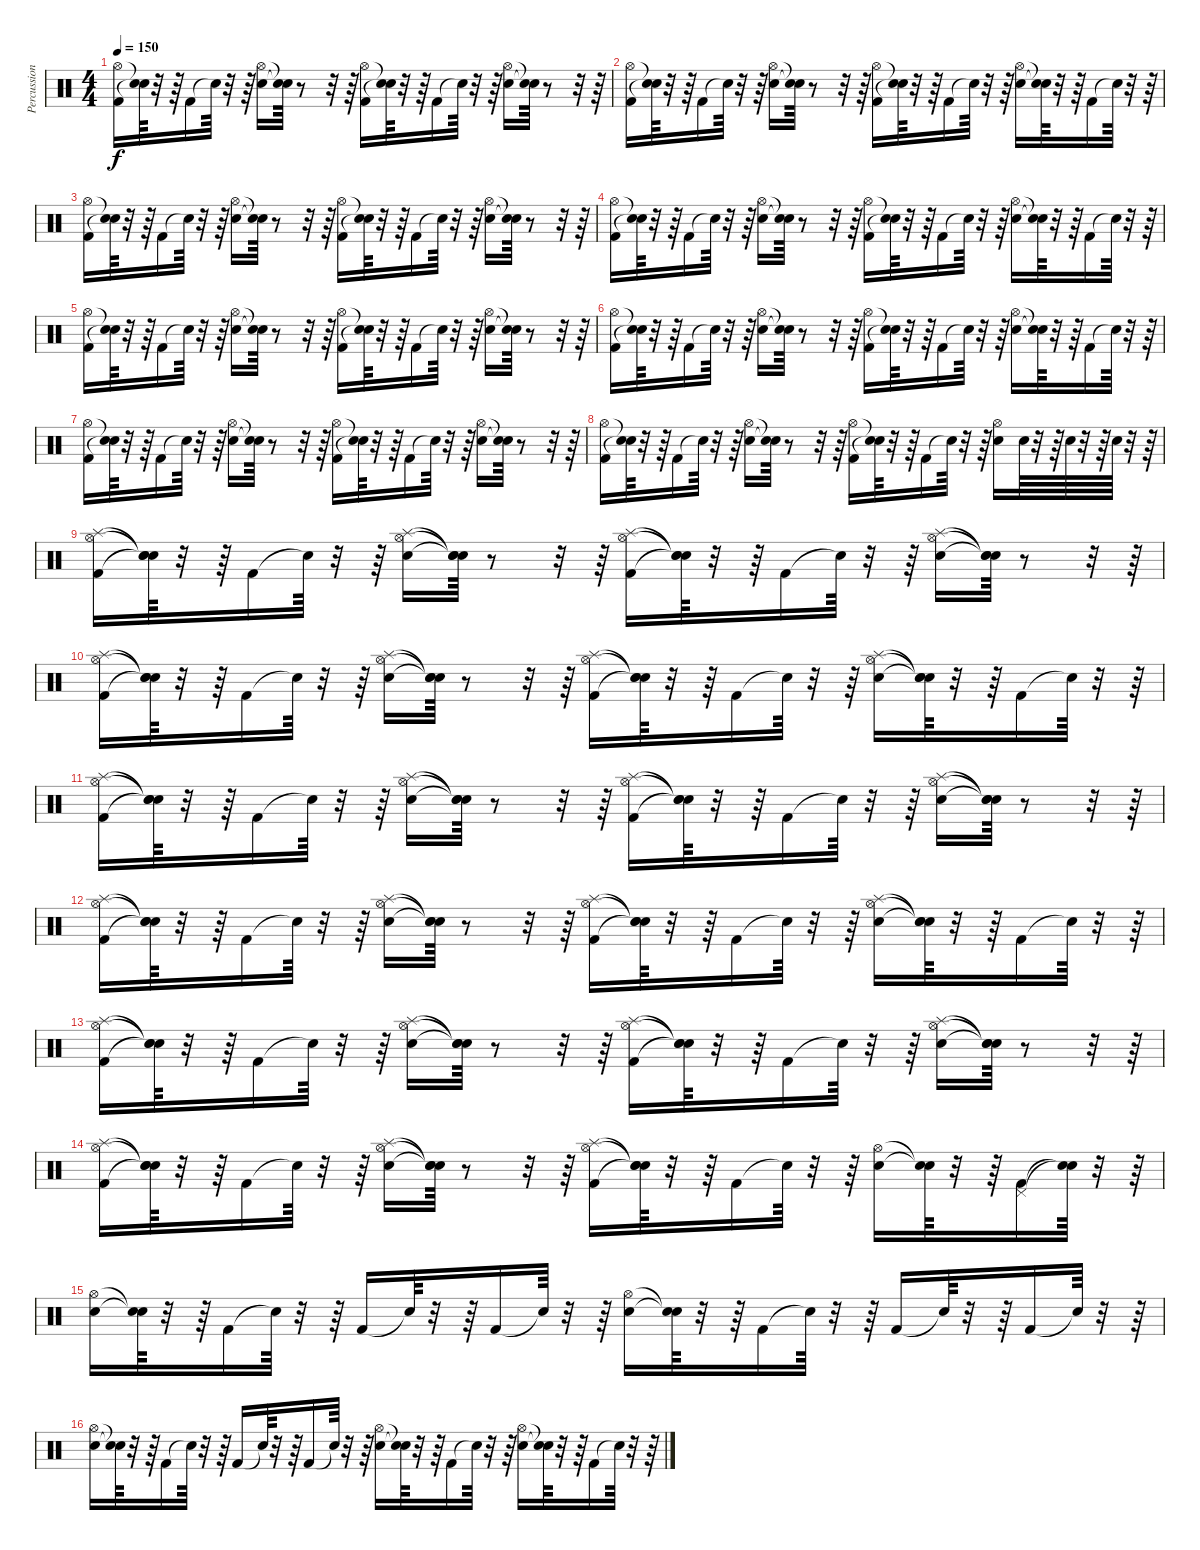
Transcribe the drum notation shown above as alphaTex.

\track ("Percussions" "Percussion") {instrument percussion}
\staff {score}
\articulation defaults
\ts (4 4)
\tempo 150
\clef neutral
\ks c
("Hi-Hat (open)" "Kick (hit) 2").16{dy f} ("Snare (hit)"{t} "Snare (hit)"{t}).64 r.32 r.64 "Kick (hit) 2".16 "Snare (hit)"{t}.64 r.32 r.64 ("Hi-Hat (open)" "Electric Snare (hit)").16 ("Snare (hit)"{t} "Snare (hit)"{t}).64 r.8 r.32 r.64 ("Hi-Hat (open)" "Kick (hit) 2").16 ("Snare (hit)"{t} "Snare (hit)"{t}).64 r.32 r.64 "Kick (hit) 2".16 "Snare (hit)"{t}.64 r.32 r.64 ("Hi-Hat (open)" "Electric Snare (hit)").16 ("Snare (hit)"{t} "Snare (hit)"{t}).64 r.8 r.32 r.64 |
("Hi-Hat (open)" "Kick (hit) 2").16 ("Snare (hit)"{t} "Snare (hit)"{t}).64 r.32 r.64 "Kick (hit) 2".16 "Snare (hit)"{t}.64 r.32 r.64 ("Hi-Hat (open)" "Electric Snare (hit)").16 ("Snare (hit)"{t} "Snare (hit)"{t}).64 r.8 r.32 r.64 ("Hi-Hat (open)" "Kick (hit) 2").16 ("Snare (hit)"{t} "Snare (hit)"{t}).64 r.32 r.64 "Kick (hit) 2".16 "Snare (hit)"{t}.64 r.32 r.64 ("Hi-Hat (open)" "Electric Snare (hit)").16 ("Snare (hit)"{t} "Snare (hit)"{t}).64 r.32 r.64 "Kick (hit) 2".16 "Snare (hit)"{t}.64 r.32 r.64 |
("Hi-Hat (open)" "Kick (hit) 2").16 ("Snare (hit)"{t} "Snare (hit)"{t}).64 r.32 r.64 "Kick (hit) 2".16 "Snare (hit)"{t}.64 r.32 r.64 ("Hi-Hat (open)" "Electric Snare (hit)").16 ("Snare (hit)"{t} "Snare (hit)"{t}).64 r.8 r.32 r.64 ("Hi-Hat (open)" "Kick (hit) 2").16 ("Snare (hit)"{t} "Snare (hit)"{t}).64 r.32 r.64 "Kick (hit) 2".16 "Snare (hit)"{t}.64 r.32 r.64 ("Hi-Hat (open)" "Electric Snare (hit)").16 ("Snare (hit)"{t} "Snare (hit)"{t}).64 r.8 r.32 r.64 |
("Hi-Hat (open)" "Kick (hit) 2").16 ("Snare (hit)"{t} "Snare (hit)"{t}).64 r.32 r.64 "Kick (hit) 2".16 "Snare (hit)"{t}.64 r.32 r.64 ("Hi-Hat (open)" "Electric Snare (hit)").16 ("Snare (hit)"{t} "Snare (hit)"{t}).64 r.8 r.32 r.64 ("Hi-Hat (open)" "Kick (hit) 2").16 ("Snare (hit)"{t} "Snare (hit)"{t}).64 r.32 r.64 "Kick (hit) 2".16 "Snare (hit)"{t}.64 r.32 r.64 ("Hi-Hat (open)" "Electric Snare (hit)").16 ("Snare (hit)"{t} "Snare (hit)"{t}).64 r.32 r.64 "Kick (hit) 2".16 "Snare (hit)"{t}.64 r.32 r.64 |
("Hi-Hat (open)" "Kick (hit) 2").16 ("Snare (hit)"{t} "Snare (hit)"{t}).64 r.32 r.64 "Kick (hit) 2".16 "Snare (hit)"{t}.64 r.32 r.64 ("Hi-Hat (open)" "Electric Snare (hit)").16 ("Snare (hit)"{t} "Snare (hit)"{t}).64 r.8 r.32 r.64 ("Hi-Hat (open)" "Kick (hit) 2").16 ("Snare (hit)"{t} "Snare (hit)"{t}).64 r.32 r.64 "Kick (hit) 2".16 "Snare (hit)"{t}.64 r.32 r.64 ("Hi-Hat (open)" "Electric Snare (hit)").16 ("Snare (hit)"{t} "Snare (hit)"{t}).64 r.8 r.32 r.64 |
("Hi-Hat (open)" "Kick (hit) 2").16 ("Snare (hit)"{t} "Snare (hit)"{t}).64 r.32 r.64 "Kick (hit) 2".16 "Snare (hit)"{t}.64 r.32 r.64 ("Hi-Hat (open)" "Electric Snare (hit)").16 ("Snare (hit)"{t} "Snare (hit)"{t}).64 r.8 r.32 r.64 ("Hi-Hat (open)" "Kick (hit) 2").16 ("Snare (hit)"{t} "Snare (hit)"{t}).64 r.32 r.64 "Kick (hit) 2".16 "Snare (hit)"{t}.64 r.32 r.64 ("Hi-Hat (open)" "Electric Snare (hit)").16 ("Snare (hit)"{t} "Snare (hit)"{t}).64 r.32 r.64 "Kick (hit) 2".16 "Snare (hit)"{t}.64 r.32 r.64 |
("Hi-Hat (open)" "Kick (hit) 2").16 ("Snare (hit)"{t} "Snare (hit)"{t}).64 r.32 r.64 "Kick (hit) 2".16 "Snare (hit)"{t}.64 r.32 r.64 ("Hi-Hat (open)" "Electric Snare (hit)").16 ("Snare (hit)"{t} "Snare (hit)"{t}).64 r.8 r.32 r.64 ("Hi-Hat (open)" "Kick (hit) 2").16 ("Snare (hit)"{t} "Snare (hit)"{t}).64 r.32 r.64 "Kick (hit) 2".16 "Snare (hit)"{t}.64 r.32 r.64 ("Hi-Hat (open)" "Electric Snare (hit)").16 ("Snare (hit)"{t} "Snare (hit)"{t}).64 r.8 r.32 r.64 |
("Hi-Hat (open)" "Kick (hit) 2").16 ("Snare (hit)"{t} "Snare (hit)"{t}).64 r.32 r.64 "Kick (hit) 2".16 "Snare (hit)"{t}.64 r.32 r.64 ("Hi-Hat (open)" "Electric Snare (hit)").16 ("Snare (hit)"{t} "Snare (hit)"{t}).64 r.8 r.32 r.64 ("Hi-Hat (open)" "Kick (hit) 2").16 ("Snare (hit)"{t} "Snare (hit)"{t}).64 r.32 r.64 "Kick (hit) 2".16 "Snare (hit)"{t}.64 r.32 r.64 ("Hi-Hat (open)" "Electric Snare (hit)").16 "Electric Snare (hit)".64 r.32 r.64 "Electric Snare (hit)".64 r.32 r.64 "Electric Snare (hit)".64 r.32 r.64 |
("Kick (hit) 2" "Splash (hit)" "Hi-Hat (open)").16 ("Snare (hit)"{t} "Snare (hit)"{t} "Snare (hit)"{t}).64 r.32 r.64 "Kick (hit) 2".16 "Snare (hit)"{t}.64 r.32 r.64 ("Electric Snare (hit)" "Splash (hit)" "Hi-Hat (open)").16 ("Snare (hit)"{t} "Snare (hit)"{t} "Snare (hit)"{t}).64 r.8 r.32 r.64 ("Kick (hit) 2" "Splash (hit)" "Hi-Hat (open)").16 ("Snare (hit)"{t} "Snare (hit)"{t} "Snare (hit)"{t}).64 r.32 r.64 "Kick (hit) 2".16 "Snare (hit)"{t}.64 r.32 r.64 ("Electric Snare (hit)" "Splash (hit)" "Hi-Hat (open)").16 ("Snare (hit)"{t} "Snare (hit)"{t} "Snare (hit)"{t}).64 r.8 r.32 r.64 |
("Hi-Hat (open)" "Kick (hit) 2" "Splash (hit)").16 ("Snare (hit)"{t} "Snare (hit)"{t} "Snare (hit)"{t}).64 r.32 r.64 "Kick (hit) 2".16 "Snare (hit)"{t}.64 r.32 r.64 ("Hi-Hat (open)" "Electric Snare (hit)" "Splash (hit)").16 ("Snare (hit)"{t} "Snare (hit)"{t} "Snare (hit)"{t}).64 r.8 r.32 r.64 ("Hi-Hat (open)" "Kick (hit) 2" "Splash (hit)").16 ("Snare (hit)"{t} "Snare (hit)"{t} "Snare (hit)"{t}).64 r.32 r.64 "Kick (hit) 2".16 "Snare (hit)"{t}.64 r.32 r.64 ("Hi-Hat (open)" "Electric Snare (hit)" "Splash (hit)").16 ("Snare (hit)"{t} "Snare (hit)"{t} "Snare (hit)"{t}).64 r.32 r.64 "Kick (hit) 2".16 "Snare (hit)"{t}.64 r.32 r.64 |
("Kick (hit) 2" "Splash (hit)" "Hi-Hat (open)").16 ("Snare (hit)"{t} "Snare (hit)"{t} "Snare (hit)"{t}).64 r.32 r.64 "Kick (hit) 2".16 "Snare (hit)"{t}.64 r.32 r.64 ("Electric Snare (hit)" "Splash (hit)" "Hi-Hat (open)").16 ("Snare (hit)"{t} "Snare (hit)"{t} "Snare (hit)"{t}).64 r.8 r.32 r.64 ("Kick (hit) 2" "Splash (hit)" "Hi-Hat (open)").16 ("Snare (hit)"{t} "Snare (hit)"{t} "Snare (hit)"{t}).64 r.32 r.64 "Kick (hit) 2".16 "Snare (hit)"{t}.64 r.32 r.64 ("Electric Snare (hit)" "Splash (hit)" "Hi-Hat (open)").16 ("Snare (hit)"{t} "Snare (hit)"{t} "Snare (hit)"{t}).64 r.8 r.32 r.64 |
("Hi-Hat (open)" "Kick (hit) 2" "Splash (hit)").16 ("Snare (hit)"{t} "Snare (hit)"{t} "Snare (hit)"{t}).64 r.32 r.64 "Kick (hit) 2".16 "Snare (hit)"{t}.64 r.32 r.64 ("Hi-Hat (open)" "Electric Snare (hit)" "Splash (hit)").16 ("Snare (hit)"{t} "Snare (hit)"{t} "Snare (hit)"{t}).64 r.8 r.32 r.64 ("Hi-Hat (open)" "Kick (hit) 2" "Splash (hit)").16 ("Snare (hit)"{t} "Snare (hit)"{t} "Snare (hit)"{t}).64 r.32 r.64 "Kick (hit) 2".16 "Snare (hit)"{t}.64 r.32 r.64 ("Hi-Hat (open)" "Electric Snare (hit)" "Splash (hit)").16 ("Snare (hit)"{t} "Snare (hit)"{t} "Snare (hit)"{t}).64 r.32 r.64 "Kick (hit) 2".16 "Snare (hit)"{t}.64 r.32 r.64 |
("Kick (hit) 2" "Splash (hit)" "Hi-Hat (open)").16 ("Snare (hit)"{t} "Snare (hit)"{t} "Snare (hit)"{t}).64 r.32 r.64 "Kick (hit) 2".16 "Snare (hit)"{t}.64 r.32 r.64 ("Electric Snare (hit)" "Splash (hit)" "Hi-Hat (open)").16 ("Snare (hit)"{t} "Snare (hit)"{t} "Snare (hit)"{t}).64 r.8 r.32 r.64 ("Kick (hit) 2" "Splash (hit)" "Hi-Hat (open)").16 ("Snare (hit)"{t} "Snare (hit)"{t} "Snare (hit)"{t}).64 r.32 r.64 "Kick (hit) 2".16 "Snare (hit)"{t}.64 r.32 r.64 ("Electric Snare (hit)" "Splash (hit)" "Hi-Hat (open)").16 ("Snare (hit)"{t} "Snare (hit)"{t} "Snare (hit)"{t}).64 r.8 r.32 r.64 |
("Hi-Hat (open)" "Kick (hit) 2" "Splash (hit)").16 ("Snare (hit)"{t} "Snare (hit)"{t} "Snare (hit)"{t}).64 r.32 r.64 "Kick (hit) 2".16 "Snare (hit)"{t}.64 r.32 r.64 ("Hi-Hat (open)" "Electric Snare (hit)" "Splash (hit)").16 ("Snare (hit)"{t} "Snare (hit)"{t} "Snare (hit)"{t}).64 r.8 r.32 r.64 ("Hi-Hat (open)" "Kick (hit) 2" "Splash (hit)").16 ("Snare (hit)"{t} "Snare (hit)"{t} "Snare (hit)"{t}).64 r.32 r.64 "Kick (hit) 2".16 "Snare (hit)"{t}.64 r.32 r.64 ("Electric Snare (hit)" "Hi-Hat (open)").16 ("Snare (hit)"{t} "Snare (hit)"{t}).64 r.32 r.64 ("Kick (hit) 2" "Pedal Hi-Hat (hit)").16 ("Snare (hit)"{t} "Snare (hit)"{t}).64 r.32 r.64 |
("Electric Snare (hit)" "Hi-Hat (open)").16 ("Snare (hit)"{t} "Snare (hit)"{t}).64 r.32 r.64 "Kick (hit) 2".16 "Snare (hit)"{t}.64 r.32 r.64 "Kick (hit) 2".16 "Snare (hit)"{t}.64 r.32 r.64 "Kick (hit) 2".16 "Snare (hit)"{t}.64 r.32 r.64 ("Electric Snare (hit)" "Hi-Hat (open)").16 ("Snare (hit)"{t} "Snare (hit)"{t}).64 r.32 r.64 "Kick (hit) 2".16 "Snare (hit)"{t}.64 r.32 r.64 "Kick (hit) 2".16 "Snare (hit)"{t}.64 r.32 r.64 "Kick (hit) 2".16 "Snare (hit)"{t}.64 r.32 r.64 |
("Electric Snare (hit)" "Hi-Hat (open)").16 ("Snare (hit)"{t} "Snare (hit)"{t}).64 r.32 r.64 "Kick (hit) 2".16 "Snare (hit)"{t}.64 r.32 r.64 "Kick (hit) 2".16 "Snare (hit)"{t}.64 r.32 r.64 "Kick (hit) 2".16 "Snare (hit)"{t}.64 r.32 r.64 ("Electric Snare (hit)" "Hi-Hat (open)").16 ("Snare (hit)"{t} "Snare (hit)"{t}).64 r.32 r.64 "Kick (hit) 2".16 "Snare (hit)"{t}.64 r.32 r.64 ("Electric Snare (hit)" "Hi-Hat (open)").16 ("Snare (hit)"{t} "Snare (hit)"{t}).64 r.32 r.64 "Kick (hit) 2".16 "Snare (hit)"{t}.64 r.32 r.64
